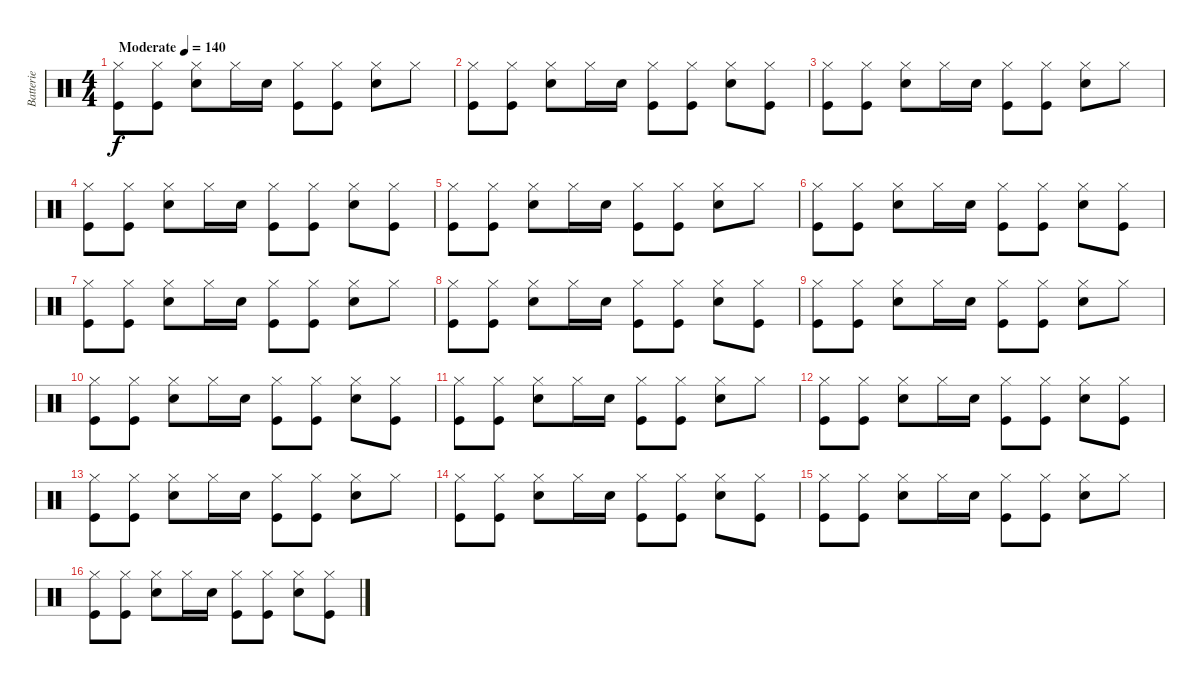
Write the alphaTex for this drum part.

\track ("Batterie" "Batterie") {instrument percussion}
\staff {score}
\articulation defaults
\ts (4 4)
\tempo (140 "Moderate")
\clef neutral
\ks c
("Hi-Hat (closed)" "Kick (hit)").8{dy f} ("Hi-Hat (closed)" "Kick (hit)").8 ("Hi-Hat (closed)" "Electric Snare (hit)").8 "Hi-Hat (closed)".16 "Electric Snare (hit)".16 ("Hi-Hat (closed)" "Kick (hit)").8 ("Hi-Hat (closed)" "Kick (hit)").8 ("Hi-Hat (closed)" "Electric Snare (hit)").8 "Hi-Hat (closed)".8 |
("Hi-Hat (closed)" "Kick (hit)").8 ("Hi-Hat (closed)" "Kick (hit)").8 ("Hi-Hat (closed)" "Electric Snare (hit)").8 "Hi-Hat (closed)".16 "Electric Snare (hit)".16 ("Hi-Hat (closed)" "Kick (hit)").8 ("Hi-Hat (closed)" "Kick (hit)").8 ("Hi-Hat (closed)" "Electric Snare (hit)").8 ("Hi-Hat (closed)" "Kick (hit)").8 |
("Hi-Hat (closed)" "Kick (hit)").8 ("Hi-Hat (closed)" "Kick (hit)").8 ("Hi-Hat (closed)" "Electric Snare (hit)").8 "Hi-Hat (closed)".16 "Electric Snare (hit)".16 ("Hi-Hat (closed)" "Kick (hit)").8 ("Hi-Hat (closed)" "Kick (hit)").8 ("Hi-Hat (closed)" "Electric Snare (hit)").8 "Hi-Hat (closed)".8 |
("Hi-Hat (closed)" "Kick (hit)").8 ("Hi-Hat (closed)" "Kick (hit)").8 ("Hi-Hat (closed)" "Electric Snare (hit)").8 "Hi-Hat (closed)".16 "Electric Snare (hit)".16 ("Hi-Hat (closed)" "Kick (hit)").8 ("Hi-Hat (closed)" "Kick (hit)").8 ("Hi-Hat (closed)" "Electric Snare (hit)").8 ("Hi-Hat (closed)" "Kick (hit)").8 |
("Hi-Hat (closed)" "Kick (hit)").8 ("Hi-Hat (closed)" "Kick (hit)").8 ("Hi-Hat (closed)" "Electric Snare (hit)").8 "Hi-Hat (closed)".16 "Electric Snare (hit)".16 ("Hi-Hat (closed)" "Kick (hit)").8 ("Hi-Hat (closed)" "Kick (hit)").8 ("Hi-Hat (closed)" "Electric Snare (hit)").8 "Hi-Hat (closed)".8 |
("Hi-Hat (closed)" "Kick (hit)").8 ("Hi-Hat (closed)" "Kick (hit)").8 ("Hi-Hat (closed)" "Electric Snare (hit)").8 "Hi-Hat (closed)".16 "Electric Snare (hit)".16 ("Hi-Hat (closed)" "Kick (hit)").8 ("Hi-Hat (closed)" "Kick (hit)").8 ("Hi-Hat (closed)" "Electric Snare (hit)").8 ("Hi-Hat (closed)" "Kick (hit)").8 |
("Hi-Hat (closed)" "Kick (hit)").8 ("Hi-Hat (closed)" "Kick (hit)").8 ("Hi-Hat (closed)" "Electric Snare (hit)").8 "Hi-Hat (closed)".16 "Electric Snare (hit)".16 ("Hi-Hat (closed)" "Kick (hit)").8 ("Hi-Hat (closed)" "Kick (hit)").8 ("Hi-Hat (closed)" "Electric Snare (hit)").8 "Hi-Hat (closed)".8 |
("Hi-Hat (closed)" "Kick (hit)").8 ("Hi-Hat (closed)" "Kick (hit)").8 ("Hi-Hat (closed)" "Electric Snare (hit)").8 "Hi-Hat (closed)".16 "Electric Snare (hit)".16 ("Hi-Hat (closed)" "Kick (hit)").8 ("Hi-Hat (closed)" "Kick (hit)").8 ("Hi-Hat (closed)" "Electric Snare (hit)").8 ("Hi-Hat (closed)" "Kick (hit)").8 |
("Hi-Hat (closed)" "Kick (hit)").8 ("Hi-Hat (closed)" "Kick (hit)").8 ("Hi-Hat (closed)" "Electric Snare (hit)").8 "Hi-Hat (closed)".16 "Electric Snare (hit)".16 ("Hi-Hat (closed)" "Kick (hit)").8 ("Hi-Hat (closed)" "Kick (hit)").8 ("Hi-Hat (closed)" "Electric Snare (hit)").8 "Hi-Hat (closed)".8 |
("Hi-Hat (closed)" "Kick (hit)").8 ("Hi-Hat (closed)" "Kick (hit)").8 ("Hi-Hat (closed)" "Electric Snare (hit)").8 "Hi-Hat (closed)".16 "Electric Snare (hit)".16 ("Hi-Hat (closed)" "Kick (hit)").8 ("Hi-Hat (closed)" "Kick (hit)").8 ("Hi-Hat (closed)" "Electric Snare (hit)").8 ("Hi-Hat (closed)" "Kick (hit)").8 |
("Hi-Hat (closed)" "Kick (hit)").8 ("Hi-Hat (closed)" "Kick (hit)").8 ("Hi-Hat (closed)" "Electric Snare (hit)").8 "Hi-Hat (closed)".16 "Electric Snare (hit)".16 ("Hi-Hat (closed)" "Kick (hit)").8 ("Hi-Hat (closed)" "Kick (hit)").8 ("Hi-Hat (closed)" "Electric Snare (hit)").8 "Hi-Hat (closed)".8 |
("Hi-Hat (closed)" "Kick (hit)").8 ("Hi-Hat (closed)" "Kick (hit)").8 ("Hi-Hat (closed)" "Electric Snare (hit)").8 "Hi-Hat (closed)".16 "Electric Snare (hit)".16 ("Hi-Hat (closed)" "Kick (hit)").8 ("Hi-Hat (closed)" "Kick (hit)").8 ("Hi-Hat (closed)" "Electric Snare (hit)").8 ("Hi-Hat (closed)" "Kick (hit)").8 |
("Hi-Hat (closed)" "Kick (hit)").8 ("Hi-Hat (closed)" "Kick (hit)").8 ("Hi-Hat (closed)" "Electric Snare (hit)").8 "Hi-Hat (closed)".16 "Electric Snare (hit)".16 ("Hi-Hat (closed)" "Kick (hit)").8 ("Hi-Hat (closed)" "Kick (hit)").8 ("Hi-Hat (closed)" "Electric Snare (hit)").8 "Hi-Hat (closed)".8 |
("Hi-Hat (closed)" "Kick (hit)").8 ("Hi-Hat (closed)" "Kick (hit)").8 ("Hi-Hat (closed)" "Electric Snare (hit)").8 "Hi-Hat (closed)".16 "Electric Snare (hit)".16 ("Hi-Hat (closed)" "Kick (hit)").8 ("Hi-Hat (closed)" "Kick (hit)").8 ("Hi-Hat (closed)" "Electric Snare (hit)").8 ("Hi-Hat (closed)" "Kick (hit)").8 |
("Hi-Hat (closed)" "Kick (hit)").8 ("Hi-Hat (closed)" "Kick (hit)").8 ("Hi-Hat (closed)" "Electric Snare (hit)").8 "Hi-Hat (closed)".16 "Electric Snare (hit)".16 ("Hi-Hat (closed)" "Kick (hit)").8 ("Hi-Hat (closed)" "Kick (hit)").8 ("Hi-Hat (closed)" "Electric Snare (hit)").8 "Hi-Hat (closed)".8 |
("Hi-Hat (closed)" "Kick (hit)").8 ("Hi-Hat (closed)" "Kick (hit)").8 ("Hi-Hat (closed)" "Electric Snare (hit)").8 "Hi-Hat (closed)".16 "Electric Snare (hit)".16 ("Hi-Hat (closed)" "Kick (hit)").8 ("Hi-Hat (closed)" "Kick (hit)").8 ("Hi-Hat (closed)" "Electric Snare (hit)").8 ("Hi-Hat (closed)" "Kick (hit)").8
